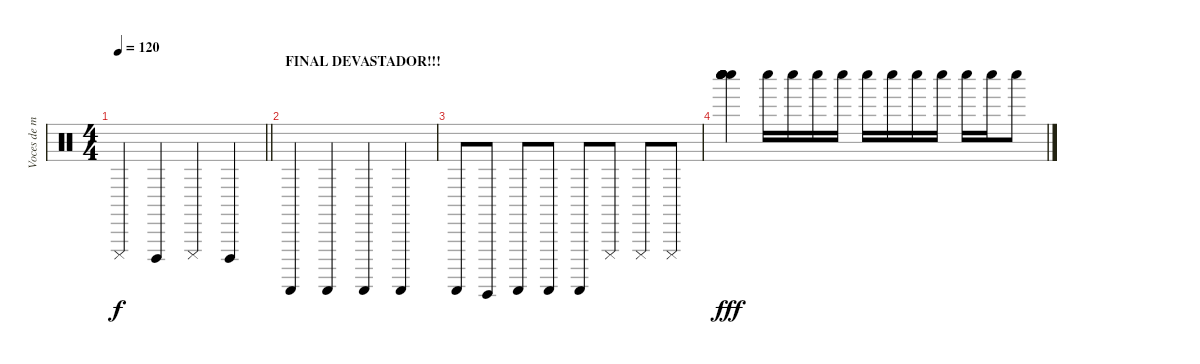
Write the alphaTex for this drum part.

\track ("Voces de marica!!" "Voces de m") {instrument percussion}
\staff {score}
\articulation defaults
\ts (4 4)
\tempo 120
\clef neutral
\barLineRight lightlight
\ks c "Cuica (mute)".4{dy f} "Cuica (open)".4 "Cuica (mute)".4 "Cuica (open)".4
|
\section ("" "FINAL DEVASTADOR!!!")
"Guiro (scrap-return)".4 "Guiro (scrap-return)".4 "Guiro (scrap-return)".4 "Guiro (scrap-return)".4 |
"Guiro (scrap-return)".8 "Guiro (hit)".8 "Guiro (scrap-return)".8 "Guiro (scrap-return)".8 "Guiro (scrap-return)".8 "Cuica (mute)".8 "Cuica (mute)".8 "Cuica (mute)".8 |
("Whistle low (hit)" "Whistle low (hit)" "Whistle low (hit)" "Whistle low (hit)" "Whistle low (hit)" "Whistle low (hit)").4{dy fff} "Whistle low (hit)".16 "Whistle low (hit)".16 "Whistle low (hit)".16 "Whistle low (hit)".16 "Whistle low (hit)".16 "Whistle low (hit)".16 "Whistle low (hit)".16 "Whistle low (hit)".16 "Whistle low (hit)".16 "Whistle low (hit)".16 "Whistle low (hit)".8
